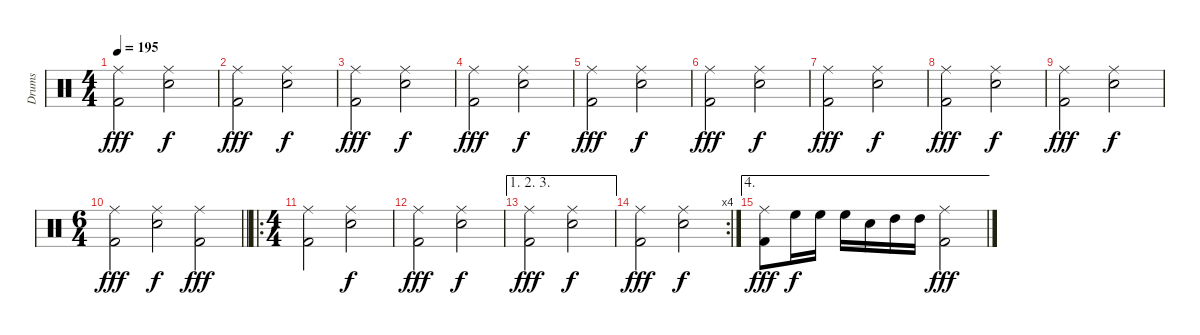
\track ("Drums" "Drums") {instrument percussion}
\staff {score}
\articulation defaults
\ts (4 4)
\tempo 195
\clef neutral
\ks c
("Ride (middle)" "Kick (hit) 2").2{dy fff} ("Ride (middle)" "Snare (hit) 2").2{dy f} |
("Ride (middle)" "Kick (hit) 2").2{dy fff} ("Ride (middle)" "Snare (hit) 2").2{dy f} |
("Ride (middle)" "Kick (hit) 2").2{dy fff} ("Ride (middle)" "Snare (hit) 2").2{dy f} |
("Ride (middle)" "Kick (hit) 2").2{dy fff} ("Ride (middle)" "Snare (hit) 2").2{dy f} |
("Ride (middle)" "Kick (hit) 2").2{dy fff} ("Ride (middle)" "Snare (hit) 2").2{dy f} |
("Ride (middle)" "Kick (hit) 2").2{dy fff} ("Ride (middle)" "Snare (hit) 2").2{dy f} |
("Ride (middle)" "Kick (hit) 2").2{dy fff} ("Ride (middle)" "Snare (hit) 2").2{dy f} |
("Ride (middle)" "Kick (hit) 2").2{dy fff} ("Ride (middle)" "Snare (hit) 2").2{dy f} |
("Ride (middle)" "Kick (hit) 2").2{dy fff} ("Ride (middle)" "Snare (hit) 2").2{dy f} |
\ts (6 4)
\barLineRight lightlight
("Ride (middle)" "Kick (hit) 2").2{dy fff} ("Ride (middle)" "Snare (hit) 2").2{dy f} ("Ride (middle)" "Kick (hit) 2").2{dy fff} |
\ro
\ts (4 4)
("Ride (middle)" "Kick (hit) 2").2 ("Ride (middle)" "Snare (hit) 2").2{dy f} |
("Ride (middle)" "Kick (hit) 2").2{dy fff} ("Ride (middle)" "Snare (hit) 2").2{dy f} |
\ae (1 2 3)
("Ride (middle)" "Kick (hit) 2").2{dy fff} ("Ride (middle)" "Snare (hit) 2").2{dy f} |
\rc 4
("Ride (middle)" "Kick (hit) 2").2{dy fff} ("Ride (middle)" "Snare (hit) 2").2{dy f} |
\ae 4
("Ride (middle)" "Kick (hit) 2").8{dy fff} "High Floor Tom (hit)".16{dy f} "High Floor Tom (hit)".16 "High Floor Tom (hit)".16 "Snare (hit)".16 "High Tom (hit)".16 "High Tom (hit)".16 ("Ride (middle)" "Kick (hit) 2").2{dy fff}
